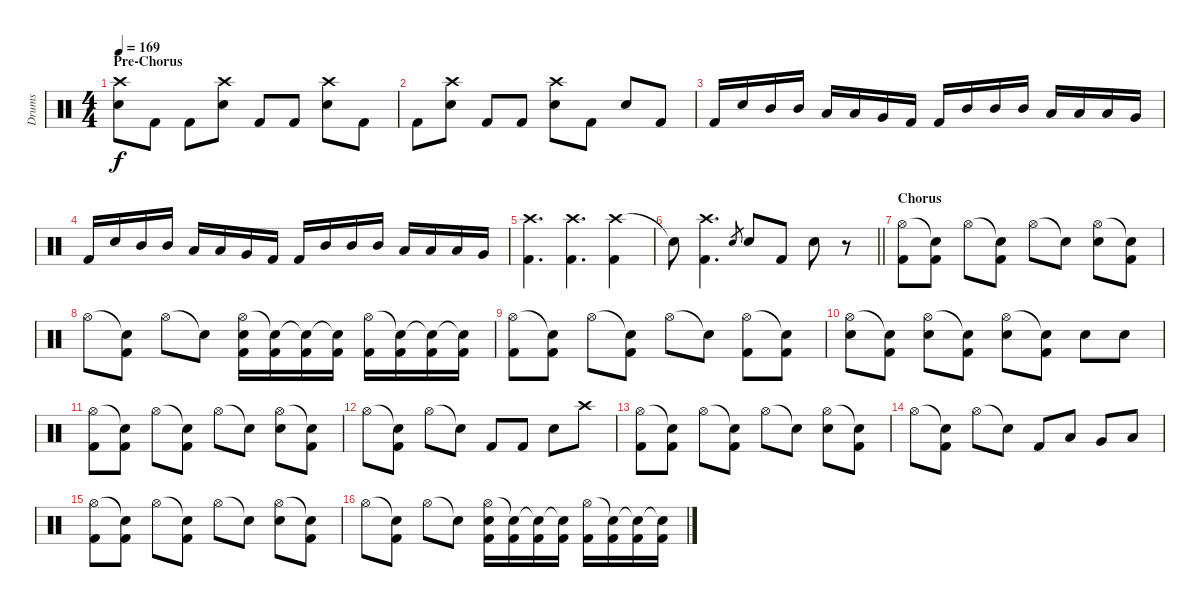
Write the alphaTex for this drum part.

\track ("Drums" "Drums") {instrument percussion}
\staff {score}
\articulation defaults
\ts (4 4)
\section ("" "Pre-Chorus")
\tempo 169
\clef neutral
\ks c
("Crash high (hit)" "Electric Snare (hit)").8{dy f} "Kick (hit) 2".8 "Kick (hit) 2".8 ("Crash high (hit)" "Electric Snare (hit)").8 "Kick (hit) 2".8 "Kick (hit) 2".8 ("Crash high (hit)" "Electric Snare (hit)").8 "Kick (hit) 2".8 |
"Kick (hit) 2".8 ("Crash high (hit)" "Electric Snare (hit)").8 "Kick (hit) 2".8 "Kick (hit) 2".8 ("Crash high (hit)" "Electric Snare (hit)").8 "Kick (hit) 2".8 "Electric Snare (hit)".8 "Kick (hit) 2".8 |
"Kick (hit) 2".16 "Electric Snare (hit)".16 "Mid Tom (hit)".16 "Mid Tom (hit)".16 "Low Tom (hit)".16 "Low Tom (hit)".16 "Very Low Tom (hit)".16 "Kick (hit) 2".16 "Kick (hit) 2".16 "Mid Tom (hit)".16 "Mid Tom (hit)".16 "Mid Tom (hit)".16 "Low Tom (hit)".16 "Low Tom (hit)".16 "Low Tom (hit)".16 "Very Low Tom (hit)".16 |
"Kick (hit) 2".16 "Electric Snare (hit)".16 "Mid Tom (hit)".16 "Mid Tom (hit)".16 "Low Tom (hit)".16 "Low Tom (hit)".16 "Very Low Tom (hit)".16 "Kick (hit) 2".16 "Kick (hit) 2".16 "Mid Tom (hit)".16 "Mid Tom (hit)".16 "Mid Tom (hit)".16 "Low Tom (hit)".16 "Low Tom (hit)".16 "Low Tom (hit)".16 "Very Low Tom (hit)".16 |
("Crash high (hit)" "Kick (hit) 2").4{d} ("Crash high (hit)" "Kick (hit) 2").4{d} ("Crash high (hit)" "Kick (hit) 2").4 |
\barLineRight lightlight "Snare (hit)"{t}.8
("Crash high (hit)" "Kick (hit) 2").4{d} "Electric Snare (hit)".8{gr} "Electric Snare (hit)".8 "Kick (hit) 2".8 "Electric Snare (hit)".8 r.8 |
\section ("" "Chorus")
("Hi-Hat (open)" "Kick (hit) 2").8 ("Snare (hit)"{t} "Kick (hit) 2").8 "Hi-Hat (open)".8 ("Snare (hit)"{t} "Kick (hit) 2").8 "Hi-Hat (open)".8 "Snare (hit)"{t}.8 ("Hi-Hat (open)" "Electric Snare (hit)").8 ("Snare (hit)"{t} "Kick (hit) 2").8 |
"Hi-Hat (open)".8 ("Snare (hit)"{t} "Kick (hit) 2").8 "Hi-Hat (open)".8 "Snare (hit)"{t}.8 ("Hi-Hat (open)" "Electric Snare (hit)" "Kick (hit) 2").16 ("Snare (hit)"{t} "Kick (hit) 2").16 ("Snare (hit)"{t} "Kick (hit) 2").16 ("Snare (hit)"{t} "Kick (hit) 2").16 ("Hi-Hat (open)" "Kick (hit) 2").16 ("Snare (hit)"{t} "Kick (hit) 2").16 ("Snare (hit)"{t} "Kick (hit) 2").16 ("Snare (hit)"{t} "Kick (hit) 2").16 |
("Hi-Hat (open)" "Kick (hit) 2").8 ("Snare (hit)"{t} "Kick (hit) 2").8 "Hi-Hat (open)".8 ("Snare (hit)"{t} "Kick (hit) 2").8 "Hi-Hat (open)".8 "Snare (hit)"{t}.8 ("Hi-Hat (open)" "Kick (hit) 2").8 ("Snare (hit)"{t} "Kick (hit) 2").8 |
("Hi-Hat (open)" "Electric Snare (hit)").8 ("Snare (hit)"{t} "Kick (hit) 2").8 ("Hi-Hat (open)" "Electric Snare (hit)").8 ("Snare (hit)"{t} "Kick (hit) 2").8 ("Hi-Hat (open)" "Electric Snare (hit)").8 ("Snare (hit)"{t} "Kick (hit) 2").8 "Electric Snare (hit)".8 "Electric Snare (hit)".8 |
("Hi-Hat (open)" "Kick (hit) 2").8 ("Snare (hit)"{t} "Kick (hit) 2").8 "Hi-Hat (open)".8 ("Snare (hit)"{t} "Kick (hit) 2").8 "Hi-Hat (open)".8 "Snare (hit)"{t}.8 ("Hi-Hat (open)" "Electric Snare (hit)").8 ("Snare (hit)"{t} "Kick (hit) 2").8 |
"Hi-Hat (open)".8 ("Snare (hit)"{t} "Kick (hit) 2").8 "Hi-Hat (open)".8 "Snare (hit)"{t}.8 "Kick (hit) 2".8 "Kick (hit) 2".8 "Electric Snare (hit)".8 "Crash high (hit)".8 |
("Hi-Hat (open)" "Kick (hit) 2").8 ("Snare (hit)"{t} "Kick (hit) 2").8 "Hi-Hat (open)".8 ("Snare (hit)"{t} "Kick (hit) 2").8 "Hi-Hat (open)".8 "Snare (hit)"{t}.8 ("Hi-Hat (open)" "Electric Snare (hit)").8 ("Snare (hit)"{t} "Kick (hit) 2").8 |
"Hi-Hat (open)".8 ("Snare (hit)"{t} "Kick (hit) 2").8 "Hi-Hat (open)".8 "Snare (hit)"{t}.8 "Kick (hit) 2".8 "Low Tom (hit)".8 "Very Low Tom (hit)".8 "Low Floor Tom (hit)".8 |
("Hi-Hat (open)" "Kick (hit) 2").8 ("Snare (hit)"{t} "Kick (hit) 2").8 "Hi-Hat (open)".8 ("Snare (hit)"{t} "Kick (hit) 2").8 "Hi-Hat (open)".8 "Snare (hit)"{t}.8 ("Hi-Hat (open)" "Electric Snare (hit)").8 ("Snare (hit)"{t} "Kick (hit) 2").8 |
"Hi-Hat (open)".8 ("Snare (hit)"{t} "Kick (hit) 2").8 "Hi-Hat (open)".8 "Snare (hit)"{t}.8 ("Hi-Hat (open)" "Electric Snare (hit)" "Kick (hit) 2").16 ("Snare (hit)"{t} "Kick (hit) 2").16 ("Snare (hit)"{t} "Kick (hit) 2").16 ("Snare (hit)"{t} "Kick (hit) 2").16 ("Hi-Hat (open)" "Kick (hit) 2").16 ("Snare (hit)"{t} "Kick (hit) 2").16 ("Snare (hit)"{t} "Kick (hit) 2").16 ("Snare (hit)"{t} "Kick (hit) 2").16
